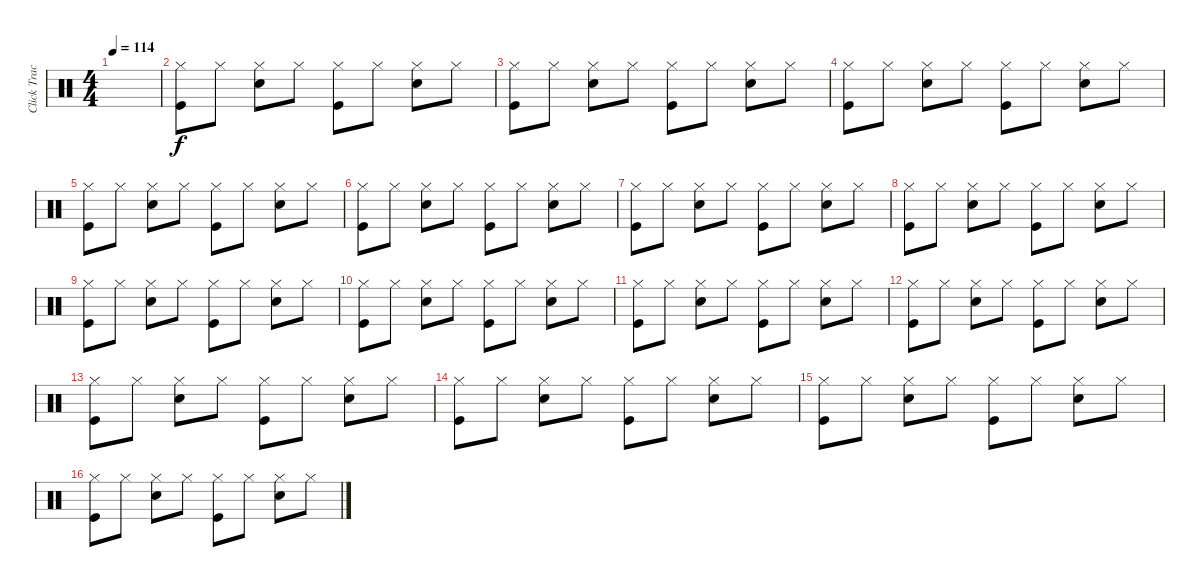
\track ("Click Track" "Click Trac") {instrument percussion}
\staff {score}
\articulation defaults
\ts (4 4)
\tempo 114
\clef neutral
\ks c
|
("Hi-Hat (closed)" "Kick (hit)").8 "Hi-Hat (closed)".8 ("Hi-Hat (closed)" "Snare (hit) 2").8 "Hi-Hat (closed)".8 ("Hi-Hat (closed)" "Kick (hit)").8 "Hi-Hat (closed)".8 ("Hi-Hat (closed)" "Snare (hit) 2").8 "Hi-Hat (closed)".8 |
("Hi-Hat (closed)" "Kick (hit)").8 "Hi-Hat (closed)".8 ("Hi-Hat (closed)" "Snare (hit) 2").8 "Hi-Hat (closed)".8 ("Hi-Hat (closed)" "Kick (hit)").8 "Hi-Hat (closed)".8 ("Hi-Hat (closed)" "Snare (hit) 2").8 "Hi-Hat (closed)".8 |
("Hi-Hat (closed)" "Kick (hit)").8 "Hi-Hat (closed)".8 ("Hi-Hat (closed)" "Snare (hit) 2").8 "Hi-Hat (closed)".8 ("Hi-Hat (closed)" "Kick (hit)").8 "Hi-Hat (closed)".8 ("Hi-Hat (closed)" "Snare (hit) 2").8 "Hi-Hat (closed)".8 |
("Hi-Hat (closed)" "Kick (hit)").8 "Hi-Hat (closed)".8 ("Hi-Hat (closed)" "Snare (hit) 2").8 "Hi-Hat (closed)".8 ("Hi-Hat (closed)" "Kick (hit)").8 "Hi-Hat (closed)".8 ("Hi-Hat (closed)" "Snare (hit) 2").8 "Hi-Hat (closed)".8 |
("Hi-Hat (closed)" "Kick (hit)").8 "Hi-Hat (closed)".8 ("Hi-Hat (closed)" "Snare (hit) 2").8 "Hi-Hat (closed)".8 ("Hi-Hat (closed)" "Kick (hit)").8 "Hi-Hat (closed)".8 ("Hi-Hat (closed)" "Snare (hit) 2").8 "Hi-Hat (closed)".8 |
("Hi-Hat (closed)" "Kick (hit)").8 "Hi-Hat (closed)".8 ("Hi-Hat (closed)" "Snare (hit) 2").8 "Hi-Hat (closed)".8 ("Hi-Hat (closed)" "Kick (hit)").8 "Hi-Hat (closed)".8 ("Hi-Hat (closed)" "Snare (hit) 2").8 "Hi-Hat (closed)".8 |
("Hi-Hat (closed)" "Kick (hit)").8 "Hi-Hat (closed)".8 ("Hi-Hat (closed)" "Snare (hit) 2").8 "Hi-Hat (closed)".8 ("Hi-Hat (closed)" "Kick (hit)").8 "Hi-Hat (closed)".8 ("Hi-Hat (closed)" "Snare (hit) 2").8 "Hi-Hat (closed)".8 |
("Hi-Hat (closed)" "Kick (hit)").8 "Hi-Hat (closed)".8 ("Hi-Hat (closed)" "Snare (hit) 2").8 "Hi-Hat (closed)".8 ("Hi-Hat (closed)" "Kick (hit)").8 "Hi-Hat (closed)".8 ("Hi-Hat (closed)" "Snare (hit) 2").8 "Hi-Hat (closed)".8 |
("Hi-Hat (closed)" "Kick (hit)").8 "Hi-Hat (closed)".8 ("Hi-Hat (closed)" "Snare (hit) 2").8 "Hi-Hat (closed)".8 ("Hi-Hat (closed)" "Kick (hit)").8 "Hi-Hat (closed)".8 ("Hi-Hat (closed)" "Snare (hit) 2").8 "Hi-Hat (closed)".8 |
("Hi-Hat (closed)" "Kick (hit)").8 "Hi-Hat (closed)".8 ("Hi-Hat (closed)" "Snare (hit) 2").8 "Hi-Hat (closed)".8 ("Hi-Hat (closed)" "Kick (hit)").8 "Hi-Hat (closed)".8 ("Hi-Hat (closed)" "Snare (hit) 2").8 "Hi-Hat (closed)".8 |
("Hi-Hat (closed)" "Kick (hit)").8 "Hi-Hat (closed)".8 ("Hi-Hat (closed)" "Snare (hit) 2").8 "Hi-Hat (closed)".8 ("Hi-Hat (closed)" "Kick (hit)").8 "Hi-Hat (closed)".8 ("Hi-Hat (closed)" "Snare (hit) 2").8 "Hi-Hat (closed)".8 |
("Hi-Hat (closed)" "Kick (hit)").8 "Hi-Hat (closed)".8 ("Hi-Hat (closed)" "Snare (hit) 2").8 "Hi-Hat (closed)".8 ("Hi-Hat (closed)" "Kick (hit)").8 "Hi-Hat (closed)".8 ("Hi-Hat (closed)" "Snare (hit) 2").8 "Hi-Hat (closed)".8 |
("Hi-Hat (closed)" "Kick (hit)").8 "Hi-Hat (closed)".8 ("Hi-Hat (closed)" "Snare (hit) 2").8 "Hi-Hat (closed)".8 ("Hi-Hat (closed)" "Kick (hit)").8 "Hi-Hat (closed)".8 ("Hi-Hat (closed)" "Snare (hit) 2").8 "Hi-Hat (closed)".8 |
("Hi-Hat (closed)" "Kick (hit)").8 "Hi-Hat (closed)".8 ("Hi-Hat (closed)" "Snare (hit) 2").8 "Hi-Hat (closed)".8 ("Hi-Hat (closed)" "Kick (hit)").8 "Hi-Hat (closed)".8 ("Hi-Hat (closed)" "Snare (hit) 2").8 "Hi-Hat (closed)".8 |
("Hi-Hat (closed)" "Kick (hit)").8 "Hi-Hat (closed)".8 ("Hi-Hat (closed)" "Snare (hit) 2").8 "Hi-Hat (closed)".8 ("Hi-Hat (closed)" "Kick (hit)").8 "Hi-Hat (closed)".8 ("Hi-Hat (closed)" "Snare (hit) 2").8 "Hi-Hat (closed)".8
